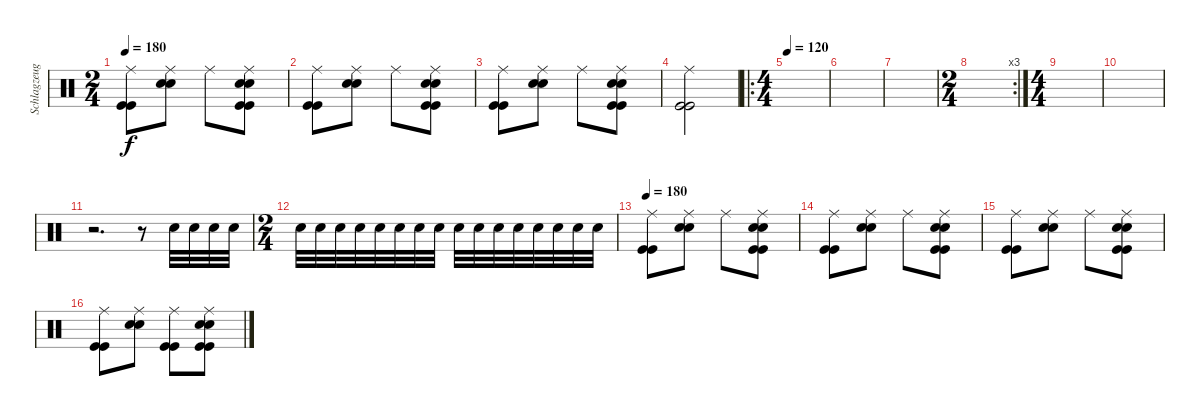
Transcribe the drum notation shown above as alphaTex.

\track ("Schlagzeug" "Schlagzeug") {instrument percussion}
\staff {score}
\articulation defaults
\ts (2 4)
\tempo 180
\clef neutral
\ks c
("Ride (middle)" "Kick (hit)" "Kick (hit)").8{dy f} ("Ride (middle)" "Electric Snare (hit)" "Electric Snare (hit)").8 "Ride (middle)".8 ("Ride (middle)" "Electric Snare (hit)" "Electric Snare (hit)" "Kick (hit)" "Kick (hit)").8 |
("Ride (middle)" "Kick (hit)" "Kick (hit)").8 ("Ride (middle)" "Electric Snare (hit)" "Electric Snare (hit)").8 "Ride (middle)".8 ("Ride (middle)" "Electric Snare (hit)" "Electric Snare (hit)" "Kick (hit)" "Kick (hit)").8 |
("Ride (middle)" "Kick (hit)" "Kick (hit)").8 ("Ride (middle)" "Electric Snare (hit)" "Electric Snare (hit)").8 "Ride (middle)".8 ("Ride (middle)" "Electric Snare (hit)" "Electric Snare (hit)" "Kick (hit)" "Kick (hit)").8 |
("Ride (middle)" "Kick (hit)" "Kick (hit)").2 |
\ro
\ts (4 4)
\tempo 120
|
|
|
\rc 3
\ts (2 4)
|
\ts (4 4)
|
|
r.2{d} r.8 "Electric Snare (hit)".32 "Electric Snare (hit)".32 "Electric Snare (hit)".32 "Electric Snare (hit)".32 |
\ts (2 4)
"Electric Snare (hit)".32 "Electric Snare (hit)".32 "Electric Snare (hit)".32 "Electric Snare (hit)".32 "Electric Snare (hit)".32 "Electric Snare (hit)".32 "Electric Snare (hit)".32 "Electric Snare (hit)".32 "Electric Snare (hit)".32 "Electric Snare (hit)".32 "Electric Snare (hit)".32 "Electric Snare (hit)".32 "Electric Snare (hit)".32 "Electric Snare (hit)".32 "Electric Snare (hit)".32 "Electric Snare (hit)".32 |
\tempo 180
("Ride (middle)" "Kick (hit)" "Kick (hit)").8 ("Ride (middle)" "Electric Snare (hit)" "Electric Snare (hit)").8 "Ride (middle)".8 ("Ride (middle)" "Electric Snare (hit)" "Electric Snare (hit)" "Kick (hit)" "Kick (hit)").8 |
("Ride (middle)" "Kick (hit)" "Kick (hit)").8 ("Ride (middle)" "Electric Snare (hit)" "Electric Snare (hit)").8 "Ride (middle)".8 ("Ride (middle)" "Electric Snare (hit)" "Electric Snare (hit)" "Kick (hit)" "Kick (hit)").8 |
("Ride (middle)" "Kick (hit)" "Kick (hit)").8 ("Ride (middle)" "Electric Snare (hit)" "Electric Snare (hit)").8 "Ride (middle)".8 ("Ride (middle)" "Electric Snare (hit)" "Electric Snare (hit)" "Kick (hit)" "Kick (hit)").8 |
("Ride (middle)" "Kick (hit)" "Kick (hit)").8 ("Ride (middle)" "Electric Snare (hit)" "Electric Snare (hit)").8 ("Ride (middle)" "Kick (hit)" "Kick (hit)").8 ("Ride (middle)" "Electric Snare (hit)" "Electric Snare (hit)" "Kick (hit)" "Kick (hit)").8
